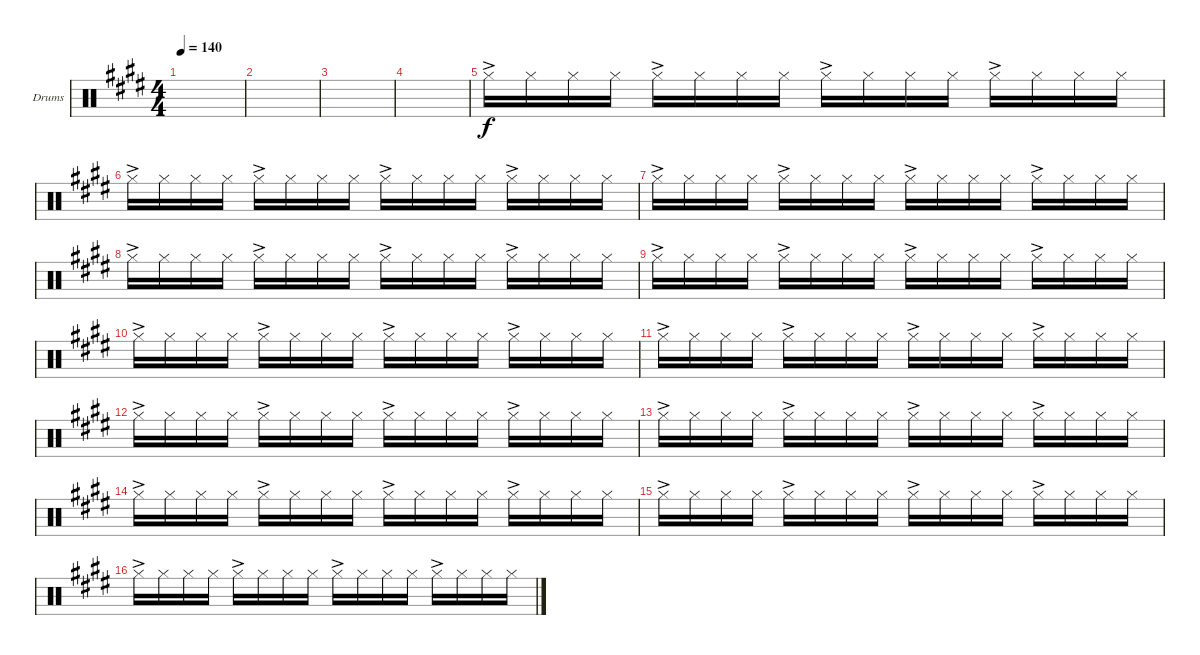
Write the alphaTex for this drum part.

\defaultSystemsLayout 4
\bracketExtendMode groupsimilarinstruments
\firstSystemTrackNameOrientation horizontal
\otherSystemsTrackNameOrientation horizontal
\track ("Drumkit" "Drums") {instrument percussion}
\staff {score}
\articulation defaults
\ts (4 4)
\tempo 140
\clef neutral
\scale
0.333333
\ks e
|
\scale
0.333333 |
\scale
0.333333 |
\scale
0.333333 |
\scale
0.333333 "Hi-Hat (closed)"{ac}.16 "Hi-Hat (closed)".16 "Hi-Hat (closed)".16 "Hi-Hat (closed)".16 "Hi-Hat (closed)"{ac}.16 "Hi-Hat (closed)".16 "Hi-Hat (closed)".16 "Hi-Hat (closed)".16 "Hi-Hat (closed)"{ac}.16 "Hi-Hat (closed)".16 "Hi-Hat (closed)".16 "Hi-Hat (closed)".16 "Hi-Hat (closed)"{ac}.16 "Hi-Hat (closed)".16 "Hi-Hat (closed)".16 "Hi-Hat (closed)".16 |
\scale
0.333333 "Hi-Hat (closed)"{ac}.16 "Hi-Hat (closed)".16 "Hi-Hat (closed)".16 "Hi-Hat (closed)".16 "Hi-Hat (closed)"{ac}.16 "Hi-Hat (closed)".16 "Hi-Hat (closed)".16 "Hi-Hat (closed)".16 "Hi-Hat (closed)"{ac}.16 "Hi-Hat (closed)".16 "Hi-Hat (closed)".16 "Hi-Hat (closed)".16 "Hi-Hat (closed)"{ac}.16 "Hi-Hat (closed)".16 "Hi-Hat (closed)".16 "Hi-Hat (closed)".16 |
\scale
0.333333 "Hi-Hat (closed)"{ac}.16 "Hi-Hat (closed)".16 "Hi-Hat (closed)".16 "Hi-Hat (closed)".16 "Hi-Hat (closed)"{ac}.16 "Hi-Hat (closed)".16 "Hi-Hat (closed)".16 "Hi-Hat (closed)".16 "Hi-Hat (closed)"{ac}.16 "Hi-Hat (closed)".16 "Hi-Hat (closed)".16 "Hi-Hat (closed)".16 "Hi-Hat (closed)"{ac}.16 "Hi-Hat (closed)".16 "Hi-Hat (closed)".16 "Hi-Hat (closed)".16 |
\scale
0.333333 "Hi-Hat (closed)"{ac}.16 "Hi-Hat (closed)".16 "Hi-Hat (closed)".16 "Hi-Hat (closed)".16 "Hi-Hat (closed)"{ac}.16 "Hi-Hat (closed)".16 "Hi-Hat (closed)".16 "Hi-Hat (closed)".16 "Hi-Hat (closed)"{ac}.16 "Hi-Hat (closed)".16 "Hi-Hat (closed)".16 "Hi-Hat (closed)".16 "Hi-Hat (closed)"{ac}.16 "Hi-Hat (closed)".16 "Hi-Hat (closed)".16 "Hi-Hat (closed)".16 |
\scale
0.333333 "Hi-Hat (closed)"{ac}.16 "Hi-Hat (closed)".16 "Hi-Hat (closed)".16 "Hi-Hat (closed)".16 "Hi-Hat (closed)"{ac}.16 "Hi-Hat (closed)".16 "Hi-Hat (closed)".16 "Hi-Hat (closed)".16 "Hi-Hat (closed)"{ac}.16 "Hi-Hat (closed)".16 "Hi-Hat (closed)".16 "Hi-Hat (closed)".16 "Hi-Hat (closed)"{ac}.16 "Hi-Hat (closed)".16 "Hi-Hat (closed)".16 "Hi-Hat (closed)".16 |
\scale
0.333333 "Hi-Hat (closed)"{ac}.16 "Hi-Hat (closed)".16 "Hi-Hat (closed)".16 "Hi-Hat (closed)".16 "Hi-Hat (closed)"{ac}.16 "Hi-Hat (closed)".16 "Hi-Hat (closed)".16 "Hi-Hat (closed)".16 "Hi-Hat (closed)"{ac}.16 "Hi-Hat (closed)".16 "Hi-Hat (closed)".16 "Hi-Hat (closed)".16 "Hi-Hat (closed)"{ac}.16 "Hi-Hat (closed)".16 "Hi-Hat (closed)".16 "Hi-Hat (closed)".16 |
\scale
0.333333 "Hi-Hat (closed)"{ac}.16 "Hi-Hat (closed)".16 "Hi-Hat (closed)".16 "Hi-Hat (closed)".16 "Hi-Hat (closed)"{ac}.16 "Hi-Hat (closed)".16 "Hi-Hat (closed)".16 "Hi-Hat (closed)".16 "Hi-Hat (closed)"{ac}.16 "Hi-Hat (closed)".16 "Hi-Hat (closed)".16 "Hi-Hat (closed)".16 "Hi-Hat (closed)"{ac}.16 "Hi-Hat (closed)".16 "Hi-Hat (closed)".16 "Hi-Hat (closed)".16 |
\scale
0.333333 "Hi-Hat (closed)"{ac}.16 "Hi-Hat (closed)".16 "Hi-Hat (closed)".16 "Hi-Hat (closed)".16 "Hi-Hat (closed)"{ac}.16 "Hi-Hat (closed)".16 "Hi-Hat (closed)".16 "Hi-Hat (closed)".16 "Hi-Hat (closed)"{ac}.16 "Hi-Hat (closed)".16 "Hi-Hat (closed)".16 "Hi-Hat (closed)".16 "Hi-Hat (closed)"{ac}.16 "Hi-Hat (closed)".16 "Hi-Hat (closed)".16 "Hi-Hat (closed)".16 |
\scale
0.333333 "Hi-Hat (closed)"{ac}.16 "Hi-Hat (closed)".16 "Hi-Hat (closed)".16 "Hi-Hat (closed)".16 "Hi-Hat (closed)"{ac}.16 "Hi-Hat (closed)".16 "Hi-Hat (closed)".16 "Hi-Hat (closed)".16 "Hi-Hat (closed)"{ac}.16 "Hi-Hat (closed)".16 "Hi-Hat (closed)".16 "Hi-Hat (closed)".16 "Hi-Hat (closed)"{ac}.16 "Hi-Hat (closed)".16 "Hi-Hat (closed)".16 "Hi-Hat (closed)".16 |
\scale
0.333333 "Hi-Hat (closed)"{ac}.16 "Hi-Hat (closed)".16 "Hi-Hat (closed)".16 "Hi-Hat (closed)".16 "Hi-Hat (closed)"{ac}.16 "Hi-Hat (closed)".16 "Hi-Hat (closed)".16 "Hi-Hat (closed)".16 "Hi-Hat (closed)"{ac}.16 "Hi-Hat (closed)".16 "Hi-Hat (closed)".16 "Hi-Hat (closed)".16 "Hi-Hat (closed)"{ac}.16 "Hi-Hat (closed)".16 "Hi-Hat (closed)".16 "Hi-Hat (closed)".16 |
\scale
0.333333 "Hi-Hat (closed)"{ac}.16 "Hi-Hat (closed)".16 "Hi-Hat (closed)".16 "Hi-Hat (closed)".16 "Hi-Hat (closed)"{ac}.16 "Hi-Hat (closed)".16 "Hi-Hat (closed)".16 "Hi-Hat (closed)".16 "Hi-Hat (closed)"{ac}.16 "Hi-Hat (closed)".16 "Hi-Hat (closed)".16 "Hi-Hat (closed)".16 "Hi-Hat (closed)"{ac}.16 "Hi-Hat (closed)".16 "Hi-Hat (closed)".16 "Hi-Hat (closed)".16 |
\scale
0.333333 "Hi-Hat (closed)"{ac}.16 "Hi-Hat (closed)".16 "Hi-Hat (closed)".16 "Hi-Hat (closed)".16 "Hi-Hat (closed)"{ac}.16 "Hi-Hat (closed)".16 "Hi-Hat (closed)".16 "Hi-Hat (closed)".16 "Hi-Hat (closed)"{ac}.16 "Hi-Hat (closed)".16 "Hi-Hat (closed)".16 "Hi-Hat (closed)".16 "Hi-Hat (closed)"{ac}.16 "Hi-Hat (closed)".16 "Hi-Hat (closed)".16 "Hi-Hat (closed)".16
